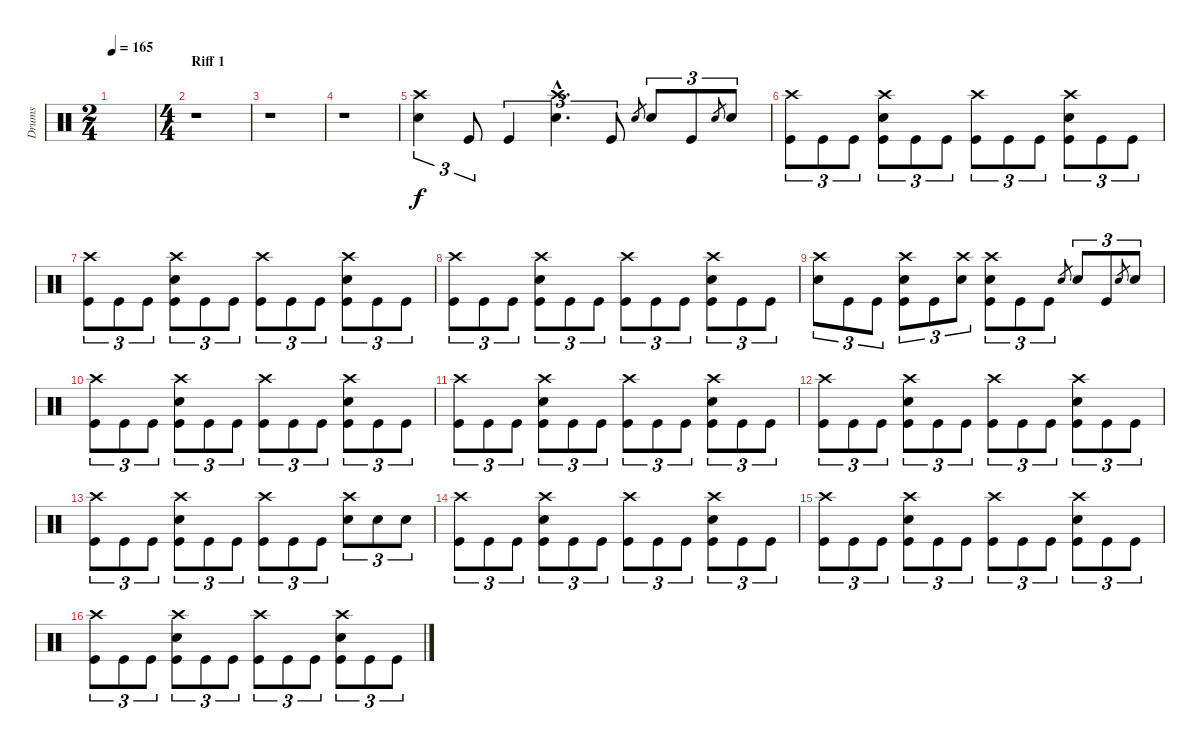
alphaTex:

\track ("Drums" "Drums") {instrument percussion}
\staff {score}
\articulation defaults
\ts (2 4)
\tempo 165
\clef neutral
\ks c
|
\ts (4 4)
\section ("" "Riff 1")
r.1 |
r.1 |
r.1 |
("Crash high (hit)" "Electric Snare (hit)").4{tu (3 2)} "Kick (hit)".8{tu (3 2)} "Kick (hit)".4{tu (3 2)} ("Crash high (hit)"{hac} "Electric Snare (hit)"{hac}).4{d tu (3 2)} "Kick (hit)".8{tu (3 2)} "Electric Snare (hit)".8{gr} "Electric Snare (hit)".8{tu (3 2)} "Kick (hit)".8{tu (3 2)} "Electric Snare (hit)".8{gr} "Electric Snare (hit)".8{tu (3 2)} |
("Crash high (hit)" "Kick (hit)").8{tu (3 2)} "Kick (hit)".8{tu (3 2)} "Kick (hit)".8{tu (3 2)} ("Crash high (hit)" "Electric Snare (hit)" "Kick (hit)").8{tu (3 2)} "Kick (hit)".8{tu (3 2)} "Kick (hit)".8{tu (3 2)} ("Crash high (hit)" "Kick (hit)").8{tu (3 2)} "Kick (hit)".8{tu (3 2)} "Kick (hit)".8{tu (3 2)} ("Crash high (hit)" "Electric Snare (hit)" "Kick (hit)").8{tu (3 2)} "Kick (hit)".8{tu (3 2)} "Kick (hit)".8{tu (3 2)} |
("Crash high (hit)" "Kick (hit)").8{tu (3 2)} "Kick (hit)".8{tu (3 2)} "Kick (hit)".8{tu (3 2)} ("Crash high (hit)" "Electric Snare (hit)" "Kick (hit)").8{tu (3 2)} "Kick (hit)".8{tu (3 2)} "Kick (hit)".8{tu (3 2)} ("Crash high (hit)" "Kick (hit)").8{tu (3 2)} "Kick (hit)".8{tu (3 2)} "Kick (hit)".8{tu (3 2)} ("Crash high (hit)" "Electric Snare (hit)" "Kick (hit)").8{tu (3 2)} "Kick (hit)".8{tu (3 2)} "Kick (hit)".8{tu (3 2)} |
("Crash high (hit)" "Kick (hit)").8{tu (3 2)} "Kick (hit)".8{tu (3 2)} "Kick (hit)".8{tu (3 2)} ("Crash high (hit)" "Electric Snare (hit)" "Kick (hit)").8{tu (3 2)} "Kick (hit)".8{tu (3 2)} "Kick (hit)".8{tu (3 2)} ("Crash high (hit)" "Kick (hit)").8{tu (3 2)} "Kick (hit)".8{tu (3 2)} "Kick (hit)".8{tu (3 2)} ("Crash high (hit)" "Electric Snare (hit)" "Kick (hit)").8{tu (3 2)} "Kick (hit)".8{tu (3 2)} "Kick (hit)".8{tu (3 2)} |
("Crash high (hit)" "Electric Snare (hit)").8{tu (3 2)} "Kick (hit)".8{tu (3 2)} "Kick (hit)".8{tu (3 2)} ("Crash high (hit)" "Electric Snare (hit)" "Kick (hit)").8{tu (3 2)} "Kick (hit)".8{tu (3 2)} ("Crash high (hit)" "Electric Snare (hit)").8{tu (3 2)} ("Crash high (hit)" "Electric Snare (hit)" "Kick (hit)").8{tu (3 2)} "Kick (hit)".8{tu (3 2)} "Kick (hit)".8{tu (3 2)} "Electric Snare (hit)".8{gr} "Electric Snare (hit)".8{tu (3 2)} "Kick (hit)".8{tu (3 2)} "Electric Snare (hit)".8{gr} "Electric Snare (hit)".8{tu (3 2)} |
("Crash high (hit)" "Kick (hit)").8{tu (3 2)} "Kick (hit)".8{tu (3 2)} "Kick (hit)".8{tu (3 2)} ("Crash high (hit)" "Electric Snare (hit)" "Kick (hit)").8{tu (3 2)} "Kick (hit)".8{tu (3 2)} "Kick (hit)".8{tu (3 2)} ("Crash high (hit)" "Kick (hit)").8{tu (3 2)} "Kick (hit)".8{tu (3 2)} "Kick (hit)".8{tu (3 2)} ("Crash high (hit)" "Electric Snare (hit)" "Kick (hit)").8{tu (3 2)} "Kick (hit)".8{tu (3 2)} "Kick (hit)".8{tu (3 2)} |
("Crash high (hit)" "Kick (hit)").8{tu (3 2)} "Kick (hit)".8{tu (3 2)} "Kick (hit)".8{tu (3 2)} ("Crash high (hit)" "Electric Snare (hit)" "Kick (hit)").8{tu (3 2)} "Kick (hit)".8{tu (3 2)} "Kick (hit)".8{tu (3 2)} ("Crash high (hit)" "Kick (hit)").8{tu (3 2)} "Kick (hit)".8{tu (3 2)} "Kick (hit)".8{tu (3 2)} ("Crash high (hit)" "Electric Snare (hit)" "Kick (hit)").8{tu (3 2)} "Kick (hit)".8{tu (3 2)} "Kick (hit)".8{tu (3 2)} |
("Crash high (hit)" "Kick (hit)").8{tu (3 2)} "Kick (hit)".8{tu (3 2)} "Kick (hit)".8{tu (3 2)} ("Crash high (hit)" "Electric Snare (hit)" "Kick (hit)").8{tu (3 2)} "Kick (hit)".8{tu (3 2)} "Kick (hit)".8{tu (3 2)} ("Crash high (hit)" "Kick (hit)").8{tu (3 2)} "Kick (hit)".8{tu (3 2)} "Kick (hit)".8{tu (3 2)} ("Crash high (hit)" "Electric Snare (hit)" "Kick (hit)").8{tu (3 2)} "Kick (hit)".8{tu (3 2)} "Kick (hit)".8{tu (3 2)} |
("Crash high (hit)" "Kick (hit)").8{tu (3 2)} "Kick (hit)".8{tu (3 2)} "Kick (hit)".8{tu (3 2)} ("Crash high (hit)" "Electric Snare (hit)" "Kick (hit)").8{tu (3 2)} "Kick (hit)".8{tu (3 2)} "Kick (hit)".8{tu (3 2)} ("Crash high (hit)" "Kick (hit)").8{tu (3 2)} "Kick (hit)".8{tu (3 2)} "Kick (hit)".8{tu (3 2)} ("Crash high (hit)" "Electric Snare (hit)").8{tu (3 2)} "Electric Snare (hit)".8{tu (3 2)} "Electric Snare (hit)".8{tu (3 2)} |
("Crash high (hit)" "Kick (hit)").8{tu (3 2)} "Kick (hit)".8{tu (3 2)} "Kick (hit)".8{tu (3 2)} ("Crash high (hit)" "Electric Snare (hit)" "Kick (hit)").8{tu (3 2)} "Kick (hit)".8{tu (3 2)} "Kick (hit)".8{tu (3 2)} ("Crash high (hit)" "Kick (hit)").8{tu (3 2)} "Kick (hit)".8{tu (3 2)} "Kick (hit)".8{tu (3 2)} ("Crash high (hit)" "Electric Snare (hit)" "Kick (hit)").8{tu (3 2)} "Kick (hit)".8{tu (3 2)} "Kick (hit)".8{tu (3 2)} |
("Crash high (hit)" "Kick (hit)").8{tu (3 2)} "Kick (hit)".8{tu (3 2)} "Kick (hit)".8{tu (3 2)} ("Crash high (hit)" "Electric Snare (hit)" "Kick (hit)").8{tu (3 2)} "Kick (hit)".8{tu (3 2)} "Kick (hit)".8{tu (3 2)} ("Crash high (hit)" "Kick (hit)").8{tu (3 2)} "Kick (hit)".8{tu (3 2)} "Kick (hit)".8{tu (3 2)} ("Crash high (hit)" "Electric Snare (hit)" "Kick (hit)").8{tu (3 2)} "Kick (hit)".8{tu (3 2)} "Kick (hit)".8{tu (3 2)} |
("Crash high (hit)" "Kick (hit)").8{tu (3 2)} "Kick (hit)".8{tu (3 2)} "Kick (hit)".8{tu (3 2)} ("Crash high (hit)" "Electric Snare (hit)" "Kick (hit)").8{tu (3 2)} "Kick (hit)".8{tu (3 2)} "Kick (hit)".8{tu (3 2)} ("Crash high (hit)" "Kick (hit)").8{tu (3 2)} "Kick (hit)".8{tu (3 2)} "Kick (hit)".8{tu (3 2)} ("Crash high (hit)" "Electric Snare (hit)" "Kick (hit)").8{tu (3 2)} "Kick (hit)".8{tu (3 2)} "Kick (hit)".8{tu (3 2)}
